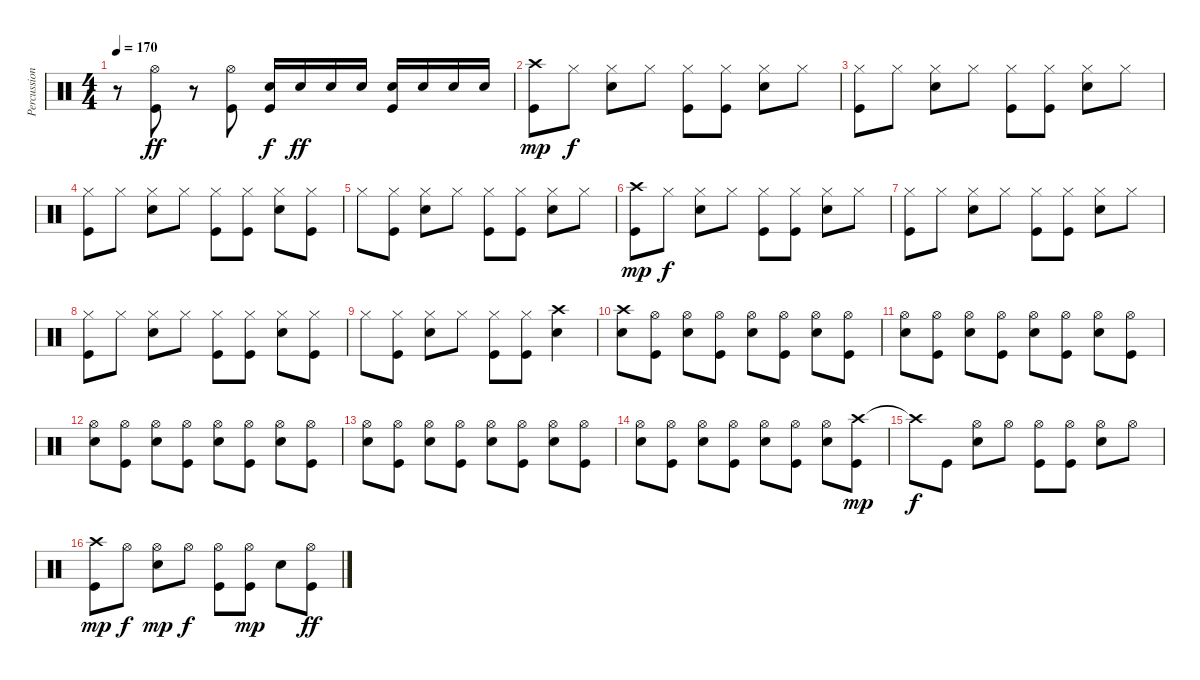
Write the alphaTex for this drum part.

\track ("Percussion" "Percussion") {instrument percussion}
\staff {score}
\articulation defaults
\ts (4 4)
\tempo 170
\clef neutral
\ks c
r.8{dy f} ("Hi-Hat (open)" "Kick (hit)").8{dy ff} r.8 ("Hi-Hat (open)" "Kick (hit)").8 ("Kick (hit)" "Snare (hit) 2").16{dy f} "Snare (hit) 2".16{dy ff} "Snare (hit) 2".16 "Snare (hit) 2".16 ("Snare (hit) 2" "Kick (hit)").16 "Snare (hit) 2".16 "Snare (hit) 2".16 "Snare (hit) 2".16 |
("Crash high (hit)" "Kick (hit)").8{dy mp} "Hi-Hat (closed)".8{dy f} ("Hi-Hat (closed)" "Snare (hit) 2").8 "Hi-Hat (closed)".8 ("Hi-Hat (closed)" "Kick (hit)").8 ("Hi-Hat (closed)" "Kick (hit)").8 ("Hi-Hat (closed)" "Snare (hit) 2").8 "Hi-Hat (closed)".8 |
("Hi-Hat (closed)" "Kick (hit)").8 "Hi-Hat (closed)".8 ("Hi-Hat (closed)" "Snare (hit) 2").8 "Hi-Hat (closed)".8 ("Hi-Hat (closed)" "Kick (hit)").8 ("Hi-Hat (closed)" "Kick (hit)").8 ("Hi-Hat (closed)" "Snare (hit) 2").8 "Hi-Hat (closed)".8 |
("Hi-Hat (closed)" "Kick (hit)").8 "Hi-Hat (closed)".8 ("Hi-Hat (closed)" "Snare (hit) 2").8 "Hi-Hat (closed)".8 ("Hi-Hat (closed)" "Kick (hit)").8 ("Hi-Hat (closed)" "Kick (hit)").8 ("Hi-Hat (closed)" "Snare (hit) 2").8 ("Hi-Hat (closed)" "Kick (hit)").8 |
"Hi-Hat (closed)".8 ("Hi-Hat (closed)" "Kick (hit)").8 ("Hi-Hat (closed)" "Snare (hit) 2").8 "Hi-Hat (closed)".8 ("Hi-Hat (closed)" "Kick (hit)").8 ("Hi-Hat (closed)" "Kick (hit)").8 ("Hi-Hat (closed)" "Snare (hit) 2").8 "Hi-Hat (closed)".8 |
("Crash high (hit)" "Kick (hit)").8{dy mp} "Hi-Hat (closed)".8{dy f} ("Hi-Hat (closed)" "Snare (hit) 2").8 "Hi-Hat (closed)".8 ("Hi-Hat (closed)" "Kick (hit)").8 ("Hi-Hat (closed)" "Kick (hit)").8 ("Hi-Hat (closed)" "Snare (hit) 2").8 "Hi-Hat (closed)".8 |
("Hi-Hat (closed)" "Kick (hit)").8 "Hi-Hat (closed)".8 ("Hi-Hat (closed)" "Snare (hit) 2").8 "Hi-Hat (closed)".8 ("Hi-Hat (closed)" "Kick (hit)").8 ("Hi-Hat (closed)" "Kick (hit)").8 ("Hi-Hat (closed)" "Snare (hit) 2").8 "Hi-Hat (closed)".8 |
("Hi-Hat (closed)" "Kick (hit)").8 "Hi-Hat (closed)".8 ("Hi-Hat (closed)" "Snare (hit) 2").8 "Hi-Hat (closed)".8 ("Hi-Hat (closed)" "Kick (hit)").8 ("Hi-Hat (closed)" "Kick (hit)").8 ("Hi-Hat (closed)" "Snare (hit) 2").8 ("Hi-Hat (closed)" "Kick (hit)").8 |
"Hi-Hat (closed)".8 ("Hi-Hat (closed)" "Kick (hit)").8 ("Hi-Hat (closed)" "Snare (hit) 2").8 "Hi-Hat (closed)".8 ("Hi-Hat (closed)" "Kick (hit)").8 ("Hi-Hat (closed)" "Kick (hit)").8 ("Crash high (hit)" "Snare (hit) 2").4 |
("Crash high (hit)" "Snare (hit) 2").8 ("Hi-Hat (open)" "Kick (hit)").8 ("Hi-Hat (open)" "Snare (hit) 2").8 ("Hi-Hat (open)" "Kick (hit)").8 ("Hi-Hat (open)" "Snare (hit) 2").8 ("Hi-Hat (open)" "Kick (hit)").8 ("Hi-Hat (open)" "Snare (hit) 2").8 ("Hi-Hat (open)" "Kick (hit)").8 |
("Hi-Hat (open)" "Snare (hit) 2").8 ("Hi-Hat (open)" "Kick (hit)").8 ("Hi-Hat (open)" "Snare (hit) 2").8 ("Hi-Hat (open)" "Kick (hit)").8 ("Hi-Hat (open)" "Snare (hit) 2").8 ("Hi-Hat (open)" "Kick (hit)").8 ("Hi-Hat (open)" "Snare (hit) 2").8 ("Hi-Hat (open)" "Kick (hit)").8 |
("Hi-Hat (open)" "Snare (hit) 2").8 ("Hi-Hat (open)" "Kick (hit)").8 ("Hi-Hat (open)" "Snare (hit) 2").8 ("Hi-Hat (open)" "Kick (hit)").8 ("Hi-Hat (open)" "Snare (hit) 2").8 ("Hi-Hat (open)" "Kick (hit)").8 ("Hi-Hat (open)" "Snare (hit) 2").8 ("Hi-Hat (open)" "Kick (hit)").8 |
("Hi-Hat (open)" "Snare (hit) 2").8 ("Hi-Hat (open)" "Kick (hit)").8 ("Hi-Hat (open)" "Snare (hit) 2").8 ("Hi-Hat (open)" "Kick (hit)").8 ("Hi-Hat (open)" "Snare (hit) 2").8 ("Hi-Hat (open)" "Kick (hit)").8 ("Hi-Hat (open)" "Snare (hit) 2").8 ("Hi-Hat (open)" "Kick (hit)").8 |
("Hi-Hat (open)" "Snare (hit) 2").8 ("Hi-Hat (open)" "Kick (hit)").8 ("Hi-Hat (open)" "Snare (hit) 2").8 ("Hi-Hat (open)" "Kick (hit)").8 ("Hi-Hat (open)" "Snare (hit) 2").8 ("Hi-Hat (open)" "Kick (hit)").8 ("Hi-Hat (open)" "Snare (hit) 2").8 ("Crash high (hit)" "Kick (hit)").8{dy mp} |
"Crash high (hit)"{t}.8{dy f} "Kick (hit)".8 ("Hi-Hat (open)" "Snare (hit) 2").8 "Hi-Hat (open)".8 ("Hi-Hat (open)" "Kick (hit)").8 ("Hi-Hat (open)" "Kick (hit)").8 ("Hi-Hat (open)" "Snare (hit) 2").8 "Hi-Hat (open)".8 |
("Crash high (hit)" "Kick (hit)").8{dy mp} "Hi-Hat (open)".8{dy f} ("Hi-Hat (open)" "Snare (hit) 2").8{dy mp} "Hi-Hat (open)".8{dy f} ("Hi-Hat (open)" "Kick (hit)").8 ("Kick (hit)" "Hi-Hat (open)").8{dy mp} "Snare (hit) 2".8 ("Hi-Hat (open)" "Kick (hit)").8{dy ff}
